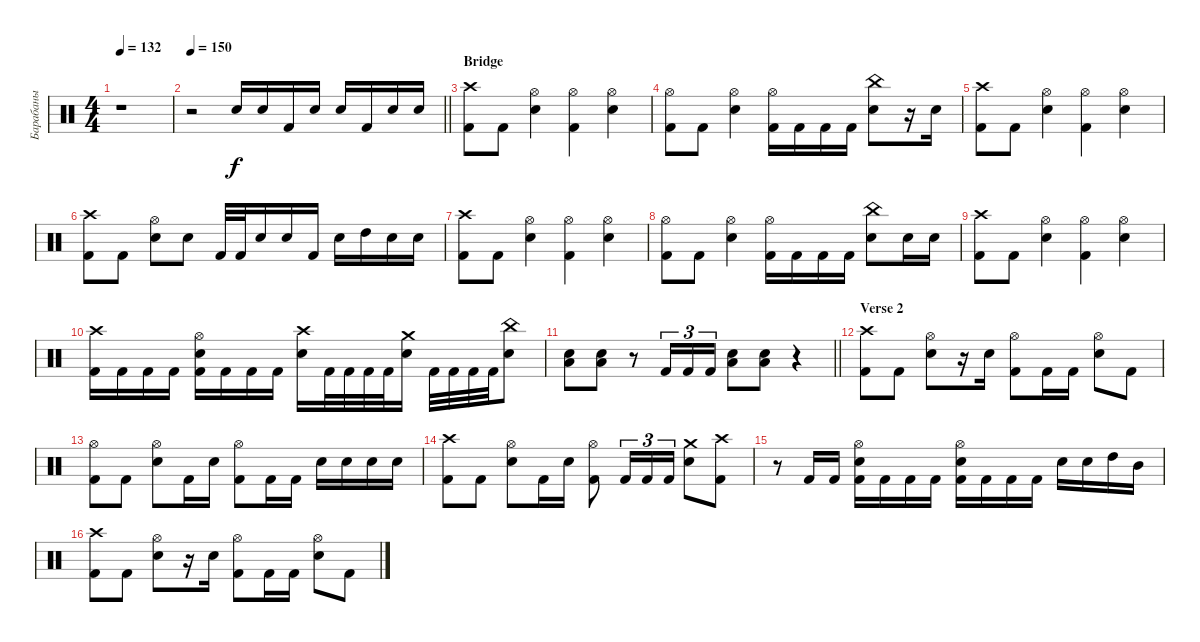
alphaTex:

\track ("Барабаны" "Барабаны") {instrument percussion}
\staff {score}
\articulation defaults
\ts (4 4)
\tempo 132
\clef neutral
\ks c
r.1{dy f} |
\tempo 150
\barLineRight lightlight
r.2 "Electric Snare (hit)".16 "Electric Snare (hit)".16 "Kick (hit) 2".16 "Electric Snare (hit)".16 "Electric Snare (hit)".16 "Kick (hit) 2".16 "Electric Snare (hit)".16 "Electric Snare (hit)".16 |
\section ("" "Bridge")
("Kick (hit) 2" "Crash high (hit)").8 "Kick (hit) 2".8 ("Electric Snare (hit)" "Hi-Hat (open)").4 ("Kick (hit) 2" "Hi-Hat (open)").4 ("Electric Snare (hit)" "Hi-Hat (open)").4 |
("Kick (hit) 2" "Hi-Hat (open)").8 "Kick (hit) 2".8 ("Electric Snare (hit)" "Hi-Hat (open)").4 ("Kick (hit) 2" "Hi-Hat (open)").16 "Kick (hit) 2".16 "Kick (hit) 2".16 "Kick (hit) 2".16 ("Electric Snare (hit)" "China (hit)").8 r.16 "Electric Snare (hit)".16 |
("Kick (hit) 2" "Crash high (hit)").8 "Kick (hit) 2".8 ("Electric Snare (hit)" "Hi-Hat (open)").4 ("Kick (hit) 2" "Hi-Hat (open)").4 ("Electric Snare (hit)" "Hi-Hat (open)").4 |
("Kick (hit) 2" "Crash high (hit)").8 "Kick (hit) 2".8 ("Electric Snare (hit)" "Hi-Hat (open)").8 "Electric Snare (hit)".8 "Kick (hit) 2".32 "Kick (hit) 2".32 "Electric Snare (hit)".16 "Electric Snare (hit)".16 "Kick (hit) 2".16 "Electric Snare (hit)".16 "High Tom (hit)".16 "Electric Snare (hit)".16 "Electric Snare (hit)".16 |
("Kick (hit) 2" "Crash high (hit)").8 "Kick (hit) 2".8 ("Electric Snare (hit)" "Hi-Hat (open)").4 ("Kick (hit) 2" "Hi-Hat (open)").4 ("Electric Snare (hit)" "Hi-Hat (open)").4 |
("Kick (hit) 2" "Hi-Hat (open)").8 "Kick (hit) 2".8 ("Electric Snare (hit)" "Hi-Hat (open)").4 ("Kick (hit) 2" "Hi-Hat (open)").16 "Kick (hit) 2".16 "Kick (hit) 2".16 "Kick (hit) 2".16 ("Electric Snare (hit)" "China (hit)").8 "Electric Snare (hit)".16 "Electric Snare (hit)".16 |
("Kick (hit) 2" "Crash high (hit)").8 "Kick (hit) 2".8 ("Electric Snare (hit)" "Hi-Hat (open)").4 ("Kick (hit) 2" "Hi-Hat (open)").4 ("Electric Snare (hit)" "Hi-Hat (open)").4 |
("Kick (hit) 2" "Crash high (hit)").16 "Kick (hit) 2".16 "Kick (hit) 2".16 "Kick (hit) 2".16 ("Electric Snare (hit)" "Kick (hit) 2" "Hi-Hat (open)").16 "Kick (hit) 2".16 "Kick (hit) 2".16 "Kick (hit) 2".16 ("Electric Snare (hit)" "Crash high (hit)").16 "Kick (hit) 2".32 "Kick (hit) 2".32 "Kick (hit) 2".32 "Kick (hit) 2".32 ("Electric Snare (hit)" "Crash medium (hit)").16 "Kick (hit) 2".32 "Kick (hit) 2".32 "Kick (hit) 2".32 "Kick (hit) 2".32 ("Electric Snare (hit)" "China (hit)").8 |
\barLineRight lightlight
("Electric Snare (hit)" "Low Floor Tom (hit)").8 ("Electric Snare (hit)" "Low Floor Tom (hit)").8 r.8 "Kick (hit) 2".16{tu (3 2)} "Kick (hit) 2".16{tu (3 2)} "Kick (hit) 2".16{tu (3 2)} ("Electric Snare (hit)" "Low Floor Tom (hit)").8 ("Electric Snare (hit)" "Low Floor Tom (hit)").8 r.4 |
\section ("" "Verse 2")
("Kick (hit) 2" "Crash high (hit)").8 "Kick (hit) 2".8 ("Electric Snare (hit)" "Hi-Hat (open)").8 r.16 "Electric Snare (hit)".16 ("Kick (hit) 2" "Hi-Hat (open)").8 "Kick (hit) 2".16 "Kick (hit) 2".16 ("Electric Snare (hit)" "Hi-Hat (open)").8 "Kick (hit) 2".8 |
("Kick (hit) 2" "Hi-Hat (open)").8 "Kick (hit) 2".8 ("Electric Snare (hit)" "Hi-Hat (open)").8 "Kick (hit) 2".16 "Electric Snare (hit)".16 ("Kick (hit) 2" "Hi-Hat (open)").8 "Kick (hit) 2".16 "Kick (hit) 2".16 "Electric Snare (hit)".16 "Electric Snare (hit)".16 "Electric Snare (hit)".16 "Electric Snare (hit)".16 |
("Kick (hit) 2" "Crash high (hit)").8 "Kick (hit) 2".8 ("Electric Snare (hit)" "Hi-Hat (open)").8 "Kick (hit) 2".16 "Electric Snare (hit)".16 ("Kick (hit) 2" "Hi-Hat (open)").8 "Kick (hit) 2".16{tu (3 2)} "Kick (hit) 2".16{tu (3 2)} "Kick (hit) 2".16{tu (3 2)} ("Electric Snare (hit)" "Crash medium (hit)").8 ("Kick (hit) 2" "Crash high (hit)").8 |
r.8 "Kick (hit) 2".16 "Kick (hit) 2".16 ("Electric Snare (hit)" "Kick (hit) 2" "Hi-Hat (open)").16 "Kick (hit) 2".16 "Kick (hit) 2".16 "Kick (hit) 2".16 ("Electric Snare (hit)" "Kick (hit) 2" "Hi-Hat (open)").16 "Kick (hit) 2".16 "Kick (hit) 2".16 "Kick (hit) 2".16 "Electric Snare (hit)".16 "Electric Snare (hit)".16 "High Tom (hit)".16 "Mid Tom (hit)".16 |
("Kick (hit) 2" "Crash high (hit)").8 "Kick (hit) 2".8 ("Electric Snare (hit)" "Hi-Hat (open)").8 r.16 "Electric Snare (hit)".16 ("Kick (hit) 2" "Hi-Hat (open)").8 "Kick (hit) 2".16 "Kick (hit) 2".16 ("Electric Snare (hit)" "Hi-Hat (open)").8 "Kick (hit) 2".8
